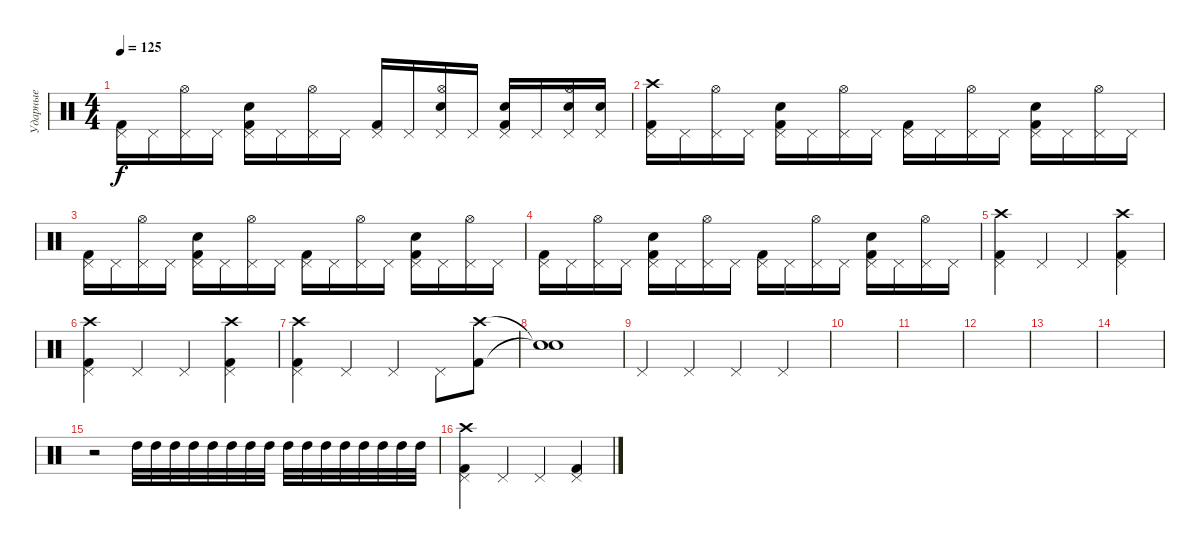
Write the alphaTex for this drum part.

\track ("Ударные" "Ударные") {instrument percussion}
\staff {score}
\articulation defaults
\ts (4 4)
\tempo 125
\clef neutral
\ks c
("Kick (hit) 2" "Pedal Hi-Hat (hit)").16{dy f} "Pedal Hi-Hat (hit)".16 ("Pedal Hi-Hat (hit)" "Hi-Hat (open)").16 "Pedal Hi-Hat (hit)".16 ("Kick (hit) 2" "Pedal Hi-Hat (hit)" "Snare (hit) 2").16 "Pedal Hi-Hat (hit)".16 ("Pedal Hi-Hat (hit)" "Hi-Hat (open)").16 "Pedal Hi-Hat (hit)".16 ("Kick (hit) 2" "Pedal Hi-Hat (hit)").16 "Pedal Hi-Hat (hit)".16 ("Pedal Hi-Hat (hit)" "Snare (hit) 2" "Hi-Hat (open)").16 "Pedal Hi-Hat (hit)".16 ("Kick (hit) 2" "Pedal Hi-Hat (hit)" "Snare (hit) 2").16 "Pedal Hi-Hat (hit)".16 ("Pedal Hi-Hat (hit)" "Snare (hit) 2" "Hi-Hat (open)").16 ("Pedal Hi-Hat (hit)" "Snare (hit) 2").16 |
("Kick (hit) 2" "Pedal Hi-Hat (hit)" "Crash high (hit)").16 "Pedal Hi-Hat (hit)".16 ("Pedal Hi-Hat (hit)" "Hi-Hat (open)").16 "Pedal Hi-Hat (hit)".16 ("Kick (hit) 2" "Pedal Hi-Hat (hit)" "Snare (hit) 2").16 "Pedal Hi-Hat (hit)".16 ("Pedal Hi-Hat (hit)" "Hi-Hat (open)").16 "Pedal Hi-Hat (hit)".16 ("Kick (hit) 2" "Pedal Hi-Hat (hit)").16 "Pedal Hi-Hat (hit)".16 ("Pedal Hi-Hat (hit)" "Hi-Hat (open)").16 "Pedal Hi-Hat (hit)".16 ("Kick (hit) 2" "Pedal Hi-Hat (hit)" "Snare (hit) 2").16 "Pedal Hi-Hat (hit)".16 ("Pedal Hi-Hat (hit)" "Hi-Hat (open)").16 "Pedal Hi-Hat (hit)".16 |
("Kick (hit) 2" "Pedal Hi-Hat (hit)").16 "Pedal Hi-Hat (hit)".16 ("Pedal Hi-Hat (hit)" "Hi-Hat (open)").16 "Pedal Hi-Hat (hit)".16 ("Kick (hit) 2" "Pedal Hi-Hat (hit)" "Snare (hit) 2").16 "Pedal Hi-Hat (hit)".16 ("Pedal Hi-Hat (hit)" "Hi-Hat (open)").16 "Pedal Hi-Hat (hit)".16 ("Kick (hit) 2" "Pedal Hi-Hat (hit)").16 "Pedal Hi-Hat (hit)".16 ("Pedal Hi-Hat (hit)" "Hi-Hat (open)").16 "Pedal Hi-Hat (hit)".16 ("Kick (hit) 2" "Pedal Hi-Hat (hit)" "Snare (hit) 2").16 "Pedal Hi-Hat (hit)".16 ("Pedal Hi-Hat (hit)" "Hi-Hat (open)").16 "Pedal Hi-Hat (hit)".16 |
("Kick (hit) 2" "Pedal Hi-Hat (hit)").16 "Pedal Hi-Hat (hit)".16 ("Pedal Hi-Hat (hit)" "Hi-Hat (open)").16 "Pedal Hi-Hat (hit)".16 ("Kick (hit) 2" "Pedal Hi-Hat (hit)" "Snare (hit) 2").16 "Pedal Hi-Hat (hit)".16 ("Pedal Hi-Hat (hit)" "Hi-Hat (open)").16 "Pedal Hi-Hat (hit)".16 ("Kick (hit) 2" "Pedal Hi-Hat (hit)").16 "Pedal Hi-Hat (hit)".16 ("Pedal Hi-Hat (hit)" "Hi-Hat (open)").16 "Pedal Hi-Hat (hit)".16 ("Kick (hit) 2" "Pedal Hi-Hat (hit)" "Snare (hit) 2").16 "Pedal Hi-Hat (hit)".16 ("Pedal Hi-Hat (hit)" "Hi-Hat (open)").16 "Pedal Hi-Hat (hit)".16 |
("Kick (hit) 2" "Pedal Hi-Hat (hit)" "Crash high (hit)").4 "Pedal Hi-Hat (hit)".4 "Pedal Hi-Hat (hit)".4 ("Kick (hit) 2" "Pedal Hi-Hat (hit)" "Crash high (hit)").4 |
("Kick (hit) 2" "Pedal Hi-Hat (hit)" "Crash high (hit)").4 "Pedal Hi-Hat (hit)".4 "Pedal Hi-Hat (hit)".4 ("Kick (hit) 2" "Pedal Hi-Hat (hit)" "Crash high (hit)").4 |
("Kick (hit) 2" "Pedal Hi-Hat (hit)" "Crash high (hit)").4 "Pedal Hi-Hat (hit)".4 "Pedal Hi-Hat (hit)".4 "Pedal Hi-Hat (hit)".8 ("Kick (hit) 2" "Crash high (hit)").8 |
("Snare (hit)"{t} "Snare (hit)"{t}).1 |
"Pedal Hi-Hat (hit)".4 "Pedal Hi-Hat (hit)".4 "Pedal Hi-Hat (hit)".4 "Pedal Hi-Hat (hit)".4 |
|
|
|
|
|
r.2 "High Tom (hit)".32 "High Tom (hit)".32 "High Tom (hit)".32 "High Tom (hit)".32 "High Tom (hit)".32 "High Tom (hit)".32 "High Tom (hit)".32 "High Tom (hit)".32 "High Tom (hit)".32 "High Tom (hit)".32 "High Tom (hit)".32 "High Tom (hit)".32 "High Tom (hit)".32 "High Tom (hit)".32 "High Tom (hit)".32 "High Tom (hit)".32 |
("Kick (hit) 2" "Pedal Hi-Hat (hit)" "Crash high (hit)").4 "Pedal Hi-Hat (hit)".4 "Pedal Hi-Hat (hit)".4 ("Kick (hit) 2" "Pedal Hi-Hat (hit)").4
